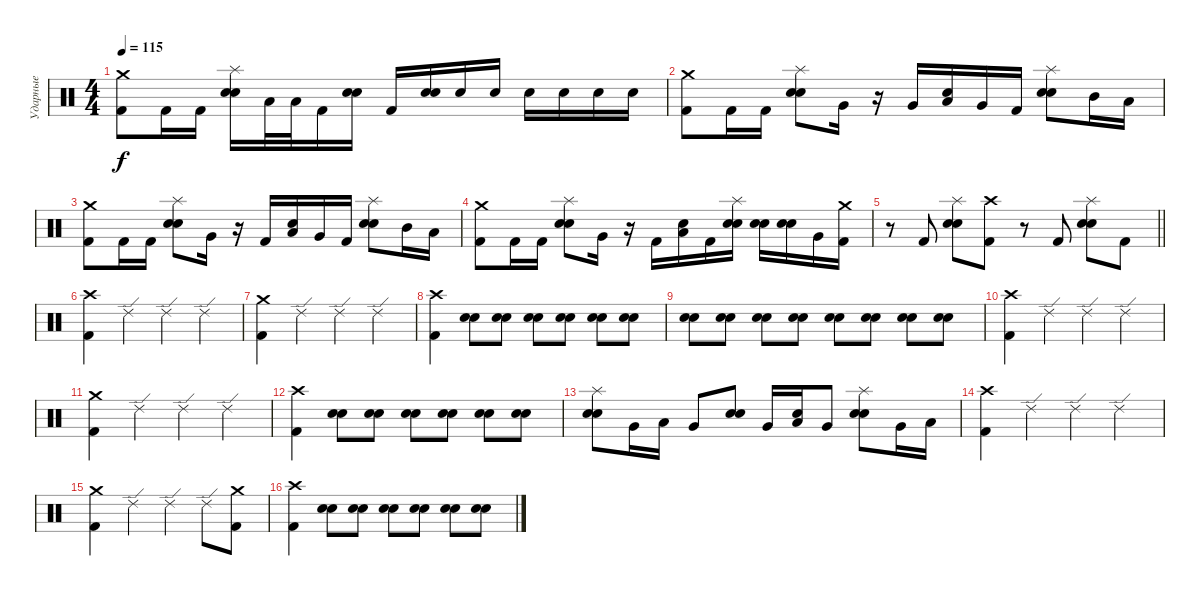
\track ("Ударные" "Ударные") {instrument percussion}
\staff {score}
\articulation defaults
\ts (4 4)
\tempo 115
\clef neutral
\ks c
("Crash medium (hit)" "Kick (hit) 2").8{dy f} "Kick (hit) 2".16 "Kick (hit) 2".16 ("Splash (hit)" "Electric Snare (hit)" "Snare (hit) 2").16 "Low Tom (hit)".32 "Low Tom (hit)".32 "Kick (hit) 2".16 ("Electric Snare (hit)" "Snare (hit) 2").16 "Kick (hit) 2".16 ("Electric Snare (hit)" "Snare (hit) 2").16 "Electric Snare (hit)".16 "Electric Snare (hit)".16 "Electric Snare (hit)".16 "Electric Snare (hit)".16 "Electric Snare (hit)".16 "Electric Snare (hit)".16 |
("Crash medium (hit)" "Kick (hit) 2").8 "Kick (hit) 2".16 "Kick (hit) 2".16 ("Splash (hit)" "Electric Snare (hit)" "Snare (hit) 2").8 "Very Low Tom (hit)".16 r.16 "Very Low Tom (hit)".16 ("Electric Snare (hit)" "Low Tom (hit)").16 "Very Low Tom (hit)".16 "Kick (hit) 2".16 ("Splash (hit)" "Electric Snare (hit)" "Snare (hit) 2").8 "Mid Tom (hit)".16 "Low Tom (hit)".16 |
("Crash medium (hit)" "Kick (hit) 2").8 "Kick (hit) 2".16 "Kick (hit) 2".16 ("Splash (hit)" "Electric Snare (hit)" "Snare (hit) 2").8 "Very Low Tom (hit)".16 r.16 "Kick (hit) 2".16 ("Electric Snare (hit)" "Low Tom (hit)").16 "Very Low Tom (hit)".16 "Kick (hit) 2".16 ("Splash (hit)" "Electric Snare (hit)" "Snare (hit) 2").8 "Mid Tom (hit)".16 "Low Tom (hit)".16 |
("Crash medium (hit)" "Kick (hit) 2").8 "Kick (hit) 2".16 "Kick (hit) 2".16 ("Splash (hit)" "Electric Snare (hit)" "Snare (hit) 2").8 "Very Low Tom (hit)".16 r.16 "Kick (hit) 2".16 ("Electric Snare (hit)" "Low Tom (hit)").16 "Kick (hit) 2".16 ("Splash (hit)" "Electric Snare (hit)" "Snare (hit) 2").16 ("Electric Snare (hit)" "Snare (hit) 2").16 ("Electric Snare (hit)" "Snare (hit) 2").16 "Very Low Tom (hit)".16 ("Crash medium (hit)" "Kick (hit) 2").16 |
\barLineRight lightlight
r.8 "Kick (hit) 2".8 ("Splash (hit)" "Electric Snare (hit)" "Snare (hit) 2").8 ("Crash high (hit)" "Kick (hit) 2").8 r.8 "Kick (hit) 2".8 ("Splash (hit)" "Electric Snare (hit)" "Snare (hit) 2").8 "Kick (hit) 2".8 |
("Crash high (hit)" "Kick (hit) 2").4 "Ride (edge) 2".4 "Ride (edge) 2".4 "Ride (edge) 2".4 |
("Crash medium (hit)" "Kick (hit) 2").4 "Ride (edge) 2".4 "Ride (edge) 2".4 "Ride (edge) 2".4 |
("Crash high (hit)" "Kick (hit) 2").4 ("Electric Snare (hit)" "Snare (hit) 2").8 ("Electric Snare (hit)" "Snare (hit) 2").8 ("Electric Snare (hit)" "Snare (hit) 2").8 ("Electric Snare (hit)" "Snare (hit) 2").8 ("Electric Snare (hit)" "Snare (hit) 2").8 ("Electric Snare (hit)" "Snare (hit) 2").8 |
("Electric Snare (hit)" "Snare (hit) 2").8 ("Electric Snare (hit)" "Snare (hit) 2").8 ("Electric Snare (hit)" "Snare (hit) 2").8 ("Electric Snare (hit)" "Snare (hit) 2").8 ("Electric Snare (hit)" "Snare (hit) 2").8 ("Electric Snare (hit)" "Snare (hit) 2").8 ("Electric Snare (hit)" "Snare (hit) 2").8 ("Electric Snare (hit)" "Snare (hit) 2").8 |
("Crash high (hit)" "Kick (hit) 2").4 "Ride (edge) 2".4 "Ride (edge) 2".4 "Ride (edge) 2".4 |
("Crash medium (hit)" "Kick (hit) 2").4 "Ride (edge) 2".4 "Ride (edge) 2".4 "Ride (edge) 2".4 |
("Crash high (hit)" "Kick (hit) 2").4 ("Electric Snare (hit)" "Snare (hit) 2").8 ("Electric Snare (hit)" "Snare (hit) 2").8 ("Electric Snare (hit)" "Snare (hit) 2").8 ("Electric Snare (hit)" "Snare (hit) 2").8 ("Electric Snare (hit)" "Snare (hit) 2").8 ("Electric Snare (hit)" "Snare (hit) 2").8 |
("Splash (hit)" "Electric Snare (hit)" "Snare (hit) 2").8 "Very Low Tom (hit)".16 "Low Tom (hit)".16 "Very Low Tom (hit)".8 ("Electric Snare (hit)" "Snare (hit) 2").8 "Very Low Tom (hit)".16 ("Electric Snare (hit)" "Low Tom (hit)").16 "Very Low Tom (hit)".8 ("Splash (hit)" "Electric Snare (hit)" "Snare (hit) 2").8 "Very Low Tom (hit)".16 "Low Tom (hit)".16 |
("Crash high (hit)" "Kick (hit) 2").4 "Ride (edge) 2".4 "Ride (edge) 2".4 "Ride (edge) 2".4 |
("Crash medium (hit)" "Kick (hit) 2").4 "Ride (edge) 2".4 "Ride (edge) 2".4 "Ride (edge) 2".8 ("Crash medium (hit)" "Kick (hit) 2").8 |
("Crash high (hit)" "Kick (hit) 2").4 ("Electric Snare (hit)" "Snare (hit) 2").8 ("Electric Snare (hit)" "Snare (hit) 2").8 ("Electric Snare (hit)" "Snare (hit) 2").8 ("Electric Snare (hit)" "Snare (hit) 2").8 ("Electric Snare (hit)" "Snare (hit) 2").8 ("Electric Snare (hit)" "Snare (hit) 2").8
